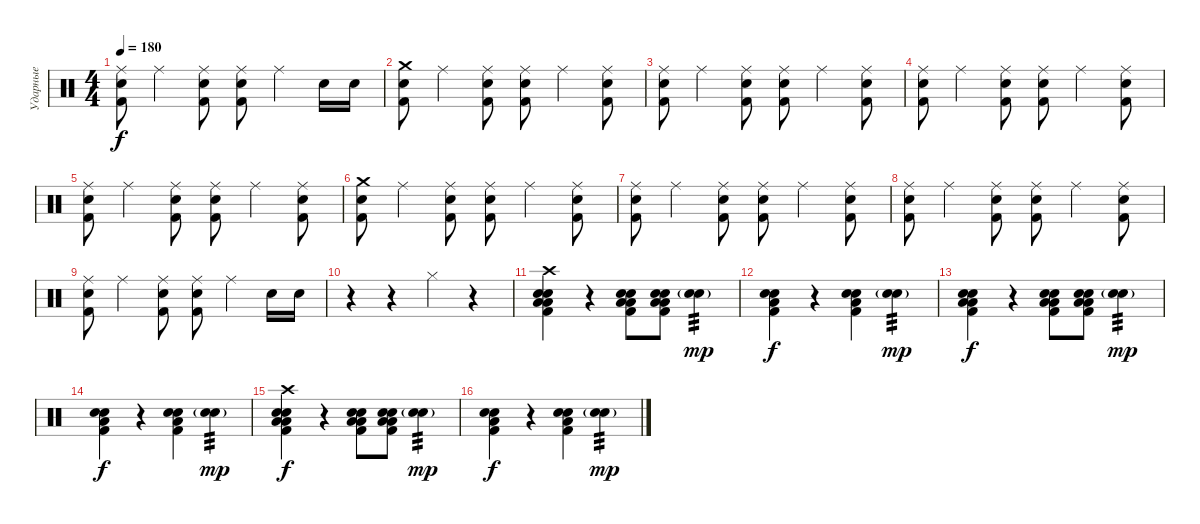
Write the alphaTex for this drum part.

\track ("Ударные" "Ударные") {instrument percussion}
\staff {score}
\articulation defaults
\ts (4 4)
\tempo 180
\clef neutral
\ks c
("Ride (middle)" "Electric Snare (hit)" "Kick (hit) 2").8{dy f} "Ride (middle)".4 ("Ride (middle)" "Electric Snare (hit)" "Kick (hit) 2").8 ("Ride (middle)" "Electric Snare (hit)" "Kick (hit) 2").8 "Ride (middle)".4 "Electric Snare (hit)".16 "Electric Snare (hit)".16 |
("Crash medium (hit)" "Electric Snare (hit)" "Kick (hit) 2").8 "Ride (middle)".4 ("Ride (middle)" "Electric Snare (hit)" "Kick (hit) 2").8 ("Ride (middle)" "Electric Snare (hit)" "Kick (hit) 2").8 "Ride (middle)".4 ("Ride (middle)" "Electric Snare (hit)" "Kick (hit) 2").8 |
("Ride (middle)" "Electric Snare (hit)" "Kick (hit) 2").8 "Ride (middle)".4 ("Ride (middle)" "Electric Snare (hit)" "Kick (hit) 2").8 ("Ride (middle)" "Electric Snare (hit)" "Kick (hit) 2").8 "Ride (middle)".4 ("Ride (middle)" "Electric Snare (hit)" "Kick (hit) 2").8 |
("Ride (middle)" "Electric Snare (hit)" "Kick (hit) 2").8 "Ride (middle)".4 ("Ride (middle)" "Electric Snare (hit)" "Kick (hit) 2").8 ("Ride (middle)" "Electric Snare (hit)" "Kick (hit) 2").8 "Ride (middle)".4 ("Ride (middle)" "Electric Snare (hit)" "Kick (hit) 2").8 |
("Ride (middle)" "Electric Snare (hit)" "Kick (hit) 2").8 "Ride (middle)".4 ("Ride (middle)" "Electric Snare (hit)" "Kick (hit) 2").8 ("Ride (middle)" "Electric Snare (hit)" "Kick (hit) 2").8 "Ride (middle)".4 ("Ride (middle)" "Electric Snare (hit)" "Kick (hit) 2").8 |
("Crash medium (hit)" "Electric Snare (hit)" "Kick (hit) 2").8 "Ride (middle)".4 ("Ride (middle)" "Electric Snare (hit)" "Kick (hit) 2").8 ("Ride (middle)" "Electric Snare (hit)" "Kick (hit) 2").8 "Ride (middle)".4 ("Ride (middle)" "Electric Snare (hit)" "Kick (hit) 2").8 |
("Ride (middle)" "Electric Snare (hit)" "Kick (hit) 2").8 "Ride (middle)".4 ("Ride (middle)" "Electric Snare (hit)" "Kick (hit) 2").8 ("Ride (middle)" "Electric Snare (hit)" "Kick (hit) 2").8 "Ride (middle)".4 ("Ride (middle)" "Electric Snare (hit)" "Kick (hit) 2").8 |
("Ride (middle)" "Electric Snare (hit)" "Kick (hit) 2").8 "Ride (middle)".4 ("Ride (middle)" "Electric Snare (hit)" "Kick (hit) 2").8 ("Ride (middle)" "Electric Snare (hit)" "Kick (hit) 2").8 "Ride (middle)".4 ("Ride (middle)" "Electric Snare (hit)" "Kick (hit) 2").8 |
("Ride (middle)" "Electric Snare (hit)" "Kick (hit) 2").8 "Ride (middle)".4 ("Ride (middle)" "Electric Snare (hit)" "Kick (hit) 2").8 ("Ride (middle)" "Electric Snare (hit)" "Kick (hit) 2").8 "Ride (middle)".4 "Electric Snare (hit)".16 "Electric Snare (hit)".16 |
r.4 r.4 "Hi-Hat (closed)".4 r.4 |
("Crash high (hit)" "Kick (hit) 2" "Snare (hit) 2" "Electric Snare (hit)" "Low Floor Tom (hit)" "Low Floor Tom (hit)").4 r.4 ("Kick (hit) 2" "Snare (hit) 2" "Electric Snare (hit)" "Low Floor Tom (hit)" "Low Floor Tom (hit)").8 ("Kick (hit) 2" "Snare (hit) 2" "Electric Snare (hit)" "Low Floor Tom (hit)" "Low Floor Tom (hit)").8 ("Snare (hit) 2" "Electric Snare (hit)"{g}).4{tp 3 dy mp} |
("Kick (hit) 2" "Snare (hit) 2" "Electric Snare (hit)" "Low Floor Tom (hit)").4{dy f} r.4 ("Kick (hit) 2" "Snare (hit) 2" "Electric Snare (hit)" "Low Floor Tom (hit)").4 ("Snare (hit) 2" "Electric Snare (hit)"{g}).4{tp 3 dy mp} |
("Kick (hit) 2" "Snare (hit) 2" "Electric Snare (hit)" "Low Floor Tom (hit)" "Low Floor Tom (hit)").4{dy f} r.4 ("Kick (hit) 2" "Snare (hit) 2" "Electric Snare (hit)" "Low Floor Tom (hit)" "Low Floor Tom (hit)").8 ("Kick (hit) 2" "Snare (hit) 2" "Electric Snare (hit)" "Low Floor Tom (hit)" "Low Floor Tom (hit)").8 ("Snare (hit) 2" "Electric Snare (hit)"{g}).4{tp 3 dy mp} |
("Kick (hit) 2" "Snare (hit) 2" "Electric Snare (hit)" "Low Floor Tom (hit)").4{dy f} r.4 ("Kick (hit) 2" "Snare (hit) 2" "Electric Snare (hit)" "Low Floor Tom (hit)").4 ("Snare (hit) 2" "Electric Snare (hit)"{g}).4{tp 3 dy mp} |
("Crash high (hit)" "Kick (hit) 2" "Snare (hit) 2" "Electric Snare (hit)" "Low Floor Tom (hit)" "Low Floor Tom (hit)").4{dy f} r.4 ("Kick (hit) 2" "Snare (hit) 2" "Electric Snare (hit)" "Low Floor Tom (hit)" "Low Floor Tom (hit)").8 ("Kick (hit) 2" "Snare (hit) 2" "Electric Snare (hit)" "Low Floor Tom (hit)" "Low Floor Tom (hit)").8 ("Snare (hit) 2" "Electric Snare (hit)"{g}).4{tp 3 dy mp} |
("Kick (hit) 2" "Snare (hit) 2" "Electric Snare (hit)" "Low Floor Tom (hit)").4{dy f} r.4 ("Kick (hit) 2" "Snare (hit) 2" "Electric Snare (hit)" "Low Floor Tom (hit)").4 ("Snare (hit) 2" "Electric Snare (hit)"{g}).4{tp 3 dy mp}
